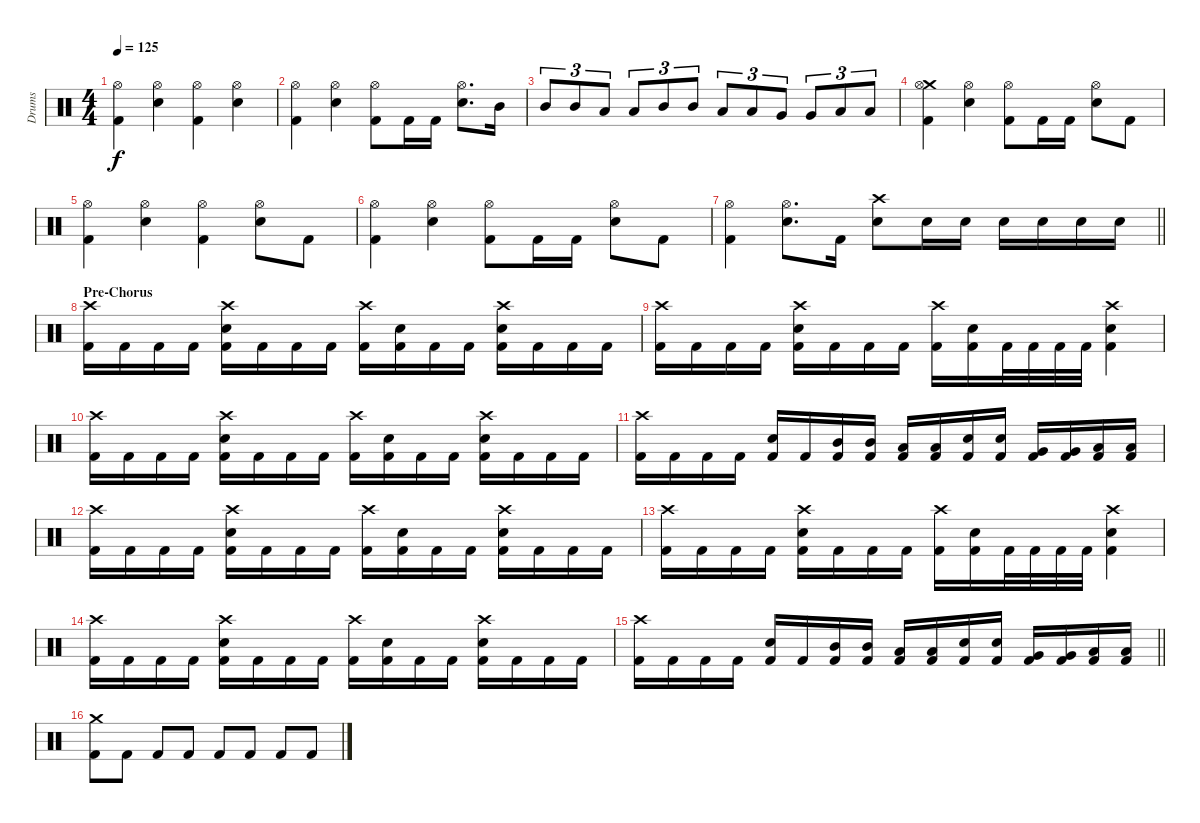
\track ("Drums" "Drums") {instrument percussion}
\staff {score}
\articulation defaults
\ts (4 4)
\tempo 125
\clef neutral
\ks c
("Hi-Hat (open)" "Kick (hit) 2").4{dy f} ("Hi-Hat (open)" "Snare (hit) 2").4 ("Hi-Hat (open)" "Kick (hit) 2").4 ("Hi-Hat (open)" "Snare (hit) 2").4 |
("Hi-Hat (open)" "Kick (hit) 2").4 ("Hi-Hat (open)" "Snare (hit) 2").4 ("Hi-Hat (open)" "Kick (hit) 2").8 "Kick (hit) 2".16 "Kick (hit) 2".16 ("Hi-Hat (open)" "Snare (hit) 2").8{d} "Mid Tom (hit)".16 |
"Mid Tom (hit)".8{tu (3 2)} "Mid Tom (hit)".8{tu (3 2)} "Low Tom (hit)".8{tu (3 2)} "Low Tom (hit)".8{tu (3 2)} "Mid Tom (hit)".8{tu (3 2)} "Mid Tom (hit)".8{tu (3 2)} "Low Tom (hit)".8{tu (3 2)} "Low Tom (hit)".8{tu (3 2)} "Very Low Tom (hit)".8{tu (3 2)} "Very Low Tom (hit)".8{tu (3 2)} "Low Floor Tom (hit)".8{tu (3 2)} "Low Floor Tom (hit)".8{tu (3 2)} |
("Crash medium (hit)" "Hi-Hat (open)" "Kick (hit) 2").4 ("Hi-Hat (open)" "Snare (hit) 2").4 ("Hi-Hat (open)" "Kick (hit) 2").8 "Kick (hit) 2".16 "Kick (hit) 2".16 ("Hi-Hat (open)" "Snare (hit) 2").8 "Kick (hit) 2".8 |
("Hi-Hat (open)" "Kick (hit) 2").4 ("Hi-Hat (open)" "Snare (hit) 2").4 ("Hi-Hat (open)" "Kick (hit) 2").4 ("Hi-Hat (open)" "Snare (hit) 2").8 "Kick (hit) 2".8 |
("Hi-Hat (open)" "Kick (hit) 2").4 ("Hi-Hat (open)" "Snare (hit) 2").4 ("Hi-Hat (open)" "Kick (hit) 2").8 "Kick (hit) 2".16 "Kick (hit) 2".16 ("Hi-Hat (open)" "Snare (hit) 2").8 "Kick (hit) 2".8 |
\barLineRight lightlight
("Hi-Hat (open)" "Kick (hit) 2").4 ("Hi-Hat (open)" "Snare (hit) 2").8{d} "Kick (hit) 2".16 ("Crash high (hit)" "Snare (hit) 2").8 "Snare (hit) 2".16 "Snare (hit) 2".16 "Snare (hit) 2".16 "Snare (hit) 2".16 "Snare (hit) 2".16 "Snare (hit) 2".16 |
\section ("" "Pre-Chorus")
("Crash high (hit)" "Kick (hit) 2").16 "Kick (hit) 2".16 "Kick (hit) 2".16 "Kick (hit) 2".16 ("Crash high (hit)" "Snare (hit) 2" "Kick (hit) 2").16 "Kick (hit) 2".16 "Kick (hit) 2".16 "Kick (hit) 2".16 ("Crash high (hit)" "Kick (hit) 2").16 ("Snare (hit) 2" "Kick (hit) 2").16 "Kick (hit) 2".16 "Kick (hit) 2".16 ("Crash high (hit)" "Snare (hit) 2" "Kick (hit) 2").16 "Kick (hit) 2".16 "Kick (hit) 2".16 "Kick (hit) 2".16 |
("Crash high (hit)" "Kick (hit) 2").16 "Kick (hit) 2".16 "Kick (hit) 2".16 "Kick (hit) 2".16 ("Crash high (hit)" "Snare (hit) 2" "Kick (hit) 2").16 "Kick (hit) 2".16 "Kick (hit) 2".16 "Kick (hit) 2".16 ("Crash high (hit)" "Kick (hit) 2").16 ("Snare (hit) 2" "Kick (hit) 2").16 "Kick (hit) 2".32 "Kick (hit) 2".32 "Kick (hit) 2".32 "Kick (hit) 2".32 ("Crash high (hit)" "Snare (hit) 2" "Kick (hit) 2").4 |
("Crash high (hit)" "Kick (hit) 2").16 "Kick (hit) 2".16 "Kick (hit) 2".16 "Kick (hit) 2".16 ("Crash high (hit)" "Snare (hit) 2" "Kick (hit) 2").16 "Kick (hit) 2".16 "Kick (hit) 2".16 "Kick (hit) 2".16 ("Crash high (hit)" "Kick (hit) 2").16 ("Snare (hit) 2" "Kick (hit) 2").16 "Kick (hit) 2".16 "Kick (hit) 2".16 ("Crash high (hit)" "Snare (hit) 2" "Kick (hit) 2").16 "Kick (hit) 2".16 "Kick (hit) 2".16 "Kick (hit) 2".16 |
("Crash high (hit)" "Kick (hit) 2").16 "Kick (hit) 2".16 "Kick (hit) 2".16 "Kick (hit) 2".16 ("Snare (hit) 2" "Kick (hit) 2").16 "Kick (hit) 2".16 ("Mid Tom (hit)" "Kick (hit) 2").16 ("Mid Tom (hit)" "Kick (hit) 2").16 ("Low Tom (hit)" "Kick (hit) 2").16 ("Low Tom (hit)" "Kick (hit) 2").16 ("Snare (hit) 2" "Kick (hit) 2").16 ("Snare (hit) 2" "Kick (hit) 2").16 ("Very Low Tom (hit)" "Kick (hit) 2").16 ("Very Low Tom (hit)" "Kick (hit) 2").16 ("Low Floor Tom (hit)" "Kick (hit) 2").16 ("Low Floor Tom (hit)" "Kick (hit) 2").16 |
("Crash high (hit)" "Kick (hit) 2").16 "Kick (hit) 2".16 "Kick (hit) 2".16 "Kick (hit) 2".16 ("Crash high (hit)" "Snare (hit) 2" "Kick (hit) 2").16 "Kick (hit) 2".16 "Kick (hit) 2".16 "Kick (hit) 2".16 ("Crash high (hit)" "Kick (hit) 2").16 ("Snare (hit) 2" "Kick (hit) 2").16 "Kick (hit) 2".16 "Kick (hit) 2".16 ("Crash high (hit)" "Snare (hit) 2" "Kick (hit) 2").16 "Kick (hit) 2".16 "Kick (hit) 2".16 "Kick (hit) 2".16 |
("Crash high (hit)" "Kick (hit) 2").16 "Kick (hit) 2".16 "Kick (hit) 2".16 "Kick (hit) 2".16 ("Crash high (hit)" "Snare (hit) 2" "Kick (hit) 2").16 "Kick (hit) 2".16 "Kick (hit) 2".16 "Kick (hit) 2".16 ("Crash high (hit)" "Kick (hit) 2").16 ("Snare (hit) 2" "Kick (hit) 2").16 "Kick (hit) 2".32 "Kick (hit) 2".32 "Kick (hit) 2".32 "Kick (hit) 2".32 ("Crash high (hit)" "Snare (hit) 2" "Kick (hit) 2").4 |
("Crash high (hit)" "Kick (hit) 2").16 "Kick (hit) 2".16 "Kick (hit) 2".16 "Kick (hit) 2".16 ("Crash high (hit)" "Snare (hit) 2" "Kick (hit) 2").16 "Kick (hit) 2".16 "Kick (hit) 2".16 "Kick (hit) 2".16 ("Crash high (hit)" "Kick (hit) 2").16 ("Snare (hit) 2" "Kick (hit) 2").16 "Kick (hit) 2".16 "Kick (hit) 2".16 ("Crash high (hit)" "Snare (hit) 2" "Kick (hit) 2").16 "Kick (hit) 2".16 "Kick (hit) 2".16 "Kick (hit) 2".16 |
\barLineRight lightlight
("Crash high (hit)" "Kick (hit) 2").16 "Kick (hit) 2".16 "Kick (hit) 2".16 "Kick (hit) 2".16 ("Snare (hit) 2" "Kick (hit) 2").16 "Kick (hit) 2".16 ("Mid Tom (hit)" "Kick (hit) 2").16 ("Mid Tom (hit)" "Kick (hit) 2").16 ("Low Tom (hit)" "Kick (hit) 2").16 ("Low Tom (hit)" "Kick (hit) 2").16 ("Snare (hit) 2" "Kick (hit) 2").16 ("Snare (hit) 2" "Kick (hit) 2").16 ("Very Low Tom (hit)" "Kick (hit) 2").16 ("Very Low Tom (hit)" "Kick (hit) 2").16 ("Low Floor Tom (hit)" "Kick (hit) 2").16 ("Low Floor Tom (hit)" "Kick (hit) 2").16 |
\section ("" "")
("Crash medium (hit)" "Kick (hit) 2").8 "Kick (hit) 2".8 "Kick (hit) 2".8 "Kick (hit) 2".8 "Kick (hit) 2".8 "Kick (hit) 2".8 "Kick (hit) 2".8 "Kick (hit) 2".8
